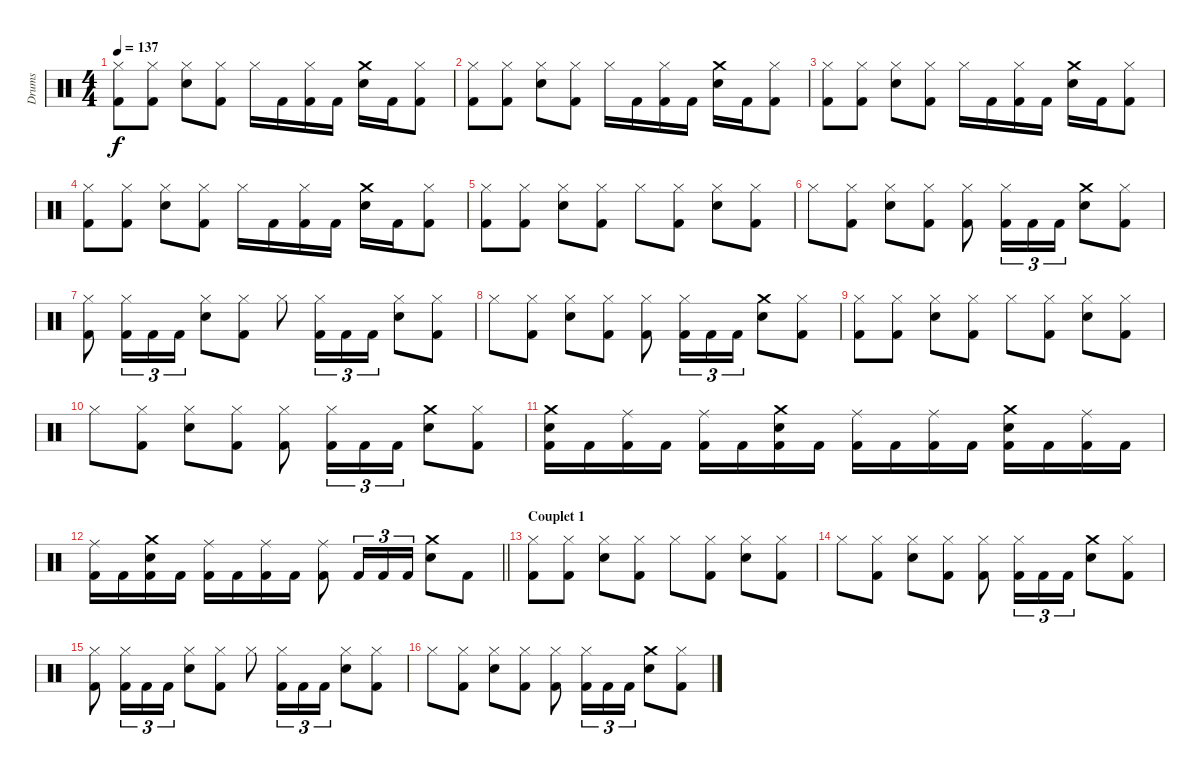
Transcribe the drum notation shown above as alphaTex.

\track ("Drums" "Drums") {instrument percussion}
\staff {score}
\articulation defaults
\ts (4 4)
\tempo 137
\clef neutral
\ks c
("Hi-Hat (closed)" "Kick (hit) 2").8{dy f} ("Hi-Hat (closed)" "Kick (hit) 2").8 ("Hi-Hat (closed)" "Electric Snare (hit)").8 ("Hi-Hat (closed)" "Kick (hit) 2").8 "Hi-Hat (closed)".16 "Kick (hit) 2".16 ("Hi-Hat (closed)" "Kick (hit) 2").16 "Kick (hit) 2".16 ("Crash medium (hit)" "Electric Snare (hit)").16 "Kick (hit) 2".16 ("Hi-Hat (closed)" "Kick (hit) 2").8 |
("Hi-Hat (closed)" "Kick (hit) 2").8 ("Hi-Hat (closed)" "Kick (hit) 2").8 ("Hi-Hat (closed)" "Electric Snare (hit)").8 ("Hi-Hat (closed)" "Kick (hit) 2").8 "Hi-Hat (closed)".16 "Kick (hit) 2".16 ("Hi-Hat (closed)" "Kick (hit) 2").16 "Kick (hit) 2".16 ("Crash medium (hit)" "Electric Snare (hit)").16 "Kick (hit) 2".16 ("Hi-Hat (closed)" "Kick (hit) 2").8 |
("Hi-Hat (closed)" "Kick (hit) 2").8 ("Hi-Hat (closed)" "Kick (hit) 2").8 ("Hi-Hat (closed)" "Electric Snare (hit)").8 ("Hi-Hat (closed)" "Kick (hit) 2").8 "Hi-Hat (closed)".16 "Kick (hit) 2".16 ("Hi-Hat (closed)" "Kick (hit) 2").16 "Kick (hit) 2".16 ("Crash medium (hit)" "Electric Snare (hit)").16 "Kick (hit) 2".16 ("Hi-Hat (closed)" "Kick (hit) 2").8 |
("Hi-Hat (closed)" "Kick (hit) 2").8 ("Hi-Hat (closed)" "Kick (hit) 2").8 ("Hi-Hat (closed)" "Electric Snare (hit)").8 ("Hi-Hat (closed)" "Kick (hit) 2").8 "Hi-Hat (closed)".16 "Kick (hit) 2".16 ("Hi-Hat (closed)" "Kick (hit) 2").16 "Kick (hit) 2".16 ("Crash medium (hit)" "Electric Snare (hit)").16 "Kick (hit) 2".16 ("Hi-Hat (closed)" "Kick (hit) 2").8 |
("Hi-Hat (closed)" "Kick (hit) 2").8 ("Hi-Hat (closed)" "Kick (hit) 2").8 ("Hi-Hat (closed)" "Electric Snare (hit)").8 ("Hi-Hat (closed)" "Kick (hit) 2").8 "Hi-Hat (closed)".8 ("Hi-Hat (closed)" "Kick (hit) 2").8 ("Hi-Hat (closed)" "Electric Snare (hit)").8 ("Hi-Hat (closed)" "Kick (hit) 2").8 |
"Hi-Hat (closed)".8 ("Hi-Hat (closed)" "Kick (hit) 2").8 ("Hi-Hat (closed)" "Electric Snare (hit)").8 ("Hi-Hat (closed)" "Kick (hit) 2").8 ("Hi-Hat (closed)" "Kick (hit) 2").8 ("Hi-Hat (closed)" "Kick (hit) 2").16{tu (3 2)} "Kick (hit) 2".16{tu (3 2)} "Kick (hit) 2".16{tu (3 2)} ("Crash medium (hit)" "Electric Snare (hit)").8 ("Hi-Hat (closed)" "Kick (hit) 2").8 |
("Hi-Hat (closed)" "Kick (hit) 2").8 ("Hi-Hat (closed)" "Kick (hit) 2").16{tu (3 2)} "Kick (hit) 2".16{tu (3 2)} "Kick (hit) 2".16{tu (3 2)} ("Hi-Hat (closed)" "Electric Snare (hit)").8 ("Hi-Hat (closed)" "Kick (hit) 2").8 "Hi-Hat (closed)".8 ("Hi-Hat (closed)" "Kick (hit) 2").16{tu (3 2)} "Kick (hit) 2".16{tu (3 2)} "Kick (hit) 2".16{tu (3 2)} ("Hi-Hat (closed)" "Electric Snare (hit)").8 ("Hi-Hat (closed)" "Kick (hit) 2").8 |
"Hi-Hat (closed)".8 ("Hi-Hat (closed)" "Kick (hit) 2").8 ("Hi-Hat (closed)" "Electric Snare (hit)").8 ("Hi-Hat (closed)" "Kick (hit) 2").8 ("Hi-Hat (closed)" "Kick (hit) 2").8 ("Hi-Hat (closed)" "Kick (hit) 2").16{tu (3 2)} "Kick (hit) 2".16{tu (3 2)} "Kick (hit) 2".16{tu (3 2)} ("Crash medium (hit)" "Electric Snare (hit)").8 ("Hi-Hat (closed)" "Kick (hit) 2").8 |
("Hi-Hat (closed)" "Kick (hit) 2").8 ("Hi-Hat (closed)" "Kick (hit) 2").8 ("Hi-Hat (closed)" "Electric Snare (hit)").8 ("Hi-Hat (closed)" "Kick (hit) 2").8 "Hi-Hat (closed)".8 ("Hi-Hat (closed)" "Kick (hit) 2").8 ("Hi-Hat (closed)" "Electric Snare (hit)").8 ("Hi-Hat (closed)" "Kick (hit) 2").8 |
"Hi-Hat (closed)".8 ("Hi-Hat (closed)" "Kick (hit) 2").8 ("Hi-Hat (closed)" "Electric Snare (hit)").8 ("Hi-Hat (closed)" "Kick (hit) 2").8 ("Hi-Hat (closed)" "Kick (hit) 2").8 ("Hi-Hat (closed)" "Kick (hit) 2").16{tu (3 2)} "Kick (hit) 2".16{tu (3 2)} "Kick (hit) 2".16{tu (3 2)} ("Crash medium (hit)" "Electric Snare (hit)").8 ("Hi-Hat (closed)" "Kick (hit) 2").8 |
("Crash medium (hit)" "Electric Snare (hit)" "Kick (hit) 2").16 "Kick (hit) 2".16 ("Ride (middle)" "Kick (hit) 2").16 "Kick (hit) 2".16 ("Ride (middle)" "Kick (hit) 2").16 "Kick (hit) 2".16 ("Crash medium (hit)" "Electric Snare (hit)" "Kick (hit) 2").16 "Kick (hit) 2".16 ("Ride (middle)" "Kick (hit) 2").16 "Kick (hit) 2".16 ("Ride (middle)" "Kick (hit) 2").16 "Kick (hit) 2".16 ("Crash medium (hit)" "Electric Snare (hit)" "Kick (hit) 2").16 "Kick (hit) 2".16 ("Ride (middle)" "Kick (hit) 2").16 "Kick (hit) 2".16 |
\barLineRight lightlight
("Ride (middle)" "Kick (hit) 2").16 "Kick (hit) 2".16 ("Crash medium (hit)" "Electric Snare (hit)" "Kick (hit) 2").16 "Kick (hit) 2".16 ("Ride (middle)" "Kick (hit) 2").16 "Kick (hit) 2".16 ("Ride (middle)" "Kick (hit) 2").16 "Kick (hit) 2".16 ("Ride (middle)" "Kick (hit) 2").8 "Kick (hit) 2".16{tu (3 2)} "Kick (hit) 2".16{tu (3 2)} "Kick (hit) 2".16{tu (3 2)} ("Crash medium (hit)" "Electric Snare (hit)").8 "Kick (hit) 2".8 |
\section ("" "Couplet 1")
("Hi-Hat (closed)" "Kick (hit) 2").8 ("Hi-Hat (closed)" "Kick (hit) 2").8 ("Hi-Hat (closed)" "Electric Snare (hit)").8 ("Hi-Hat (closed)" "Kick (hit) 2").8 "Hi-Hat (closed)".8 ("Hi-Hat (closed)" "Kick (hit) 2").8 ("Hi-Hat (closed)" "Electric Snare (hit)").8 ("Hi-Hat (closed)" "Kick (hit) 2").8 |
"Hi-Hat (closed)".8 ("Hi-Hat (closed)" "Kick (hit) 2").8 ("Hi-Hat (closed)" "Electric Snare (hit)").8 ("Hi-Hat (closed)" "Kick (hit) 2").8 ("Hi-Hat (closed)" "Kick (hit) 2").8 ("Hi-Hat (closed)" "Kick (hit) 2").16{tu (3 2)} "Kick (hit) 2".16{tu (3 2)} "Kick (hit) 2".16{tu (3 2)} ("Crash medium (hit)" "Electric Snare (hit)").8 ("Hi-Hat (closed)" "Kick (hit) 2").8 |
("Hi-Hat (closed)" "Kick (hit) 2").8 ("Hi-Hat (closed)" "Kick (hit) 2").16{tu (3 2)} "Kick (hit) 2".16{tu (3 2)} "Kick (hit) 2".16{tu (3 2)} ("Hi-Hat (closed)" "Electric Snare (hit)").8 ("Hi-Hat (closed)" "Kick (hit) 2").8 "Hi-Hat (closed)".8 ("Hi-Hat (closed)" "Kick (hit) 2").16{tu (3 2)} "Kick (hit) 2".16{tu (3 2)} "Kick (hit) 2".16{tu (3 2)} ("Hi-Hat (closed)" "Electric Snare (hit)").8 ("Hi-Hat (closed)" "Kick (hit) 2").8 |
"Hi-Hat (closed)".8 ("Hi-Hat (closed)" "Kick (hit) 2").8 ("Hi-Hat (closed)" "Electric Snare (hit)").8 ("Hi-Hat (closed)" "Kick (hit) 2").8 ("Hi-Hat (closed)" "Kick (hit) 2").8 ("Hi-Hat (closed)" "Kick (hit) 2").16{tu (3 2)} "Kick (hit) 2".16{tu (3 2)} "Kick (hit) 2".16{tu (3 2)} ("Crash medium (hit)" "Electric Snare (hit)").8 ("Hi-Hat (closed)" "Kick (hit) 2").8
